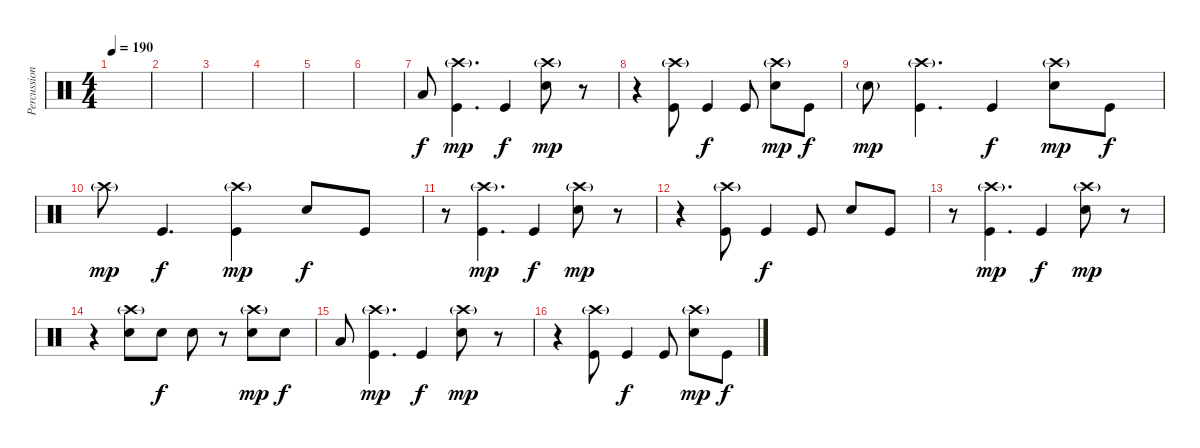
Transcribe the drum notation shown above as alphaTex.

\track ("Percussion" "Percussion") {instrument percussion}
\staff {score}
\articulation defaults
\ts (4 4)
\tempo 190
\clef neutral
\ks c
|
|
|
|
|
|
"Low Tom (hit)".8{dy f} ("Kick (hit)" "Crash high (hit)"{g}).4{d dy mp} "Kick (hit)".4{dy f} ("Electric Snare (hit)" "Crash high (hit)"{g}).8{dy mp} r.8 |
r.4 ("Kick (hit)" "Crash high (hit)"{g}).8 "Kick (hit)".4{dy f} "Kick (hit)".8 ("Electric Snare (hit)" "Crash high (hit)"{g}).8{dy mp} "Kick (hit)".8{dy f} |
"Electric Snare (hit)"{g}.8{dy mp} ("Kick (hit)" "Crash high (hit)"{g}).4{d} "Kick (hit)".4{dy f} ("Electric Snare (hit)" "Crash high (hit)"{g}).8{dy mp} "Kick (hit)".8{dy f} |
"Crash high (hit)"{g}.8{dy mp} "Kick (hit)".4{d dy f} ("Kick (hit)" "Crash high (hit)"{g}).4{dy mp} "Electric Snare (hit)".8{dy f} "Kick (hit)".8 |
r.8 ("Kick (hit)" "Crash high (hit)"{g}).4{d dy mp} "Kick (hit)".4{dy f} ("Electric Snare (hit)" "Crash high (hit)"{g}).8{dy mp} r.8 |
r.4 ("Kick (hit)" "Crash high (hit)"{g}).8 "Kick (hit)".4{dy f} "Kick (hit)".8 "Electric Snare (hit)".8 "Kick (hit)".8 |
r.8 ("Kick (hit)" "Crash high (hit)"{g}).4{d dy mp} "Kick (hit)".4{dy f} ("Electric Snare (hit)" "Crash high (hit)"{g}).8{dy mp} r.8 |
r.4 ("Electric Snare (hit)" "Crash high (hit)"{g}).8 "Electric Snare (hit)".8{dy f} "Electric Snare (hit)".8 r.8 ("Electric Snare (hit)" "Crash high (hit)"{g}).8{dy mp} "Electric Snare (hit)".8{dy f} |
"Low Tom (hit)".8 ("Kick (hit)" "Crash high (hit)"{g}).4{d dy mp} "Kick (hit)".4{dy f} ("Electric Snare (hit)" "Crash high (hit)"{g}).8{dy mp} r.8 |
r.4 ("Kick (hit)" "Crash high (hit)"{g}).8 "Kick (hit)".4{dy f} "Kick (hit)".8 ("Electric Snare (hit)" "Crash high (hit)"{g}).8{dy mp} "Kick (hit)".8{dy f}
